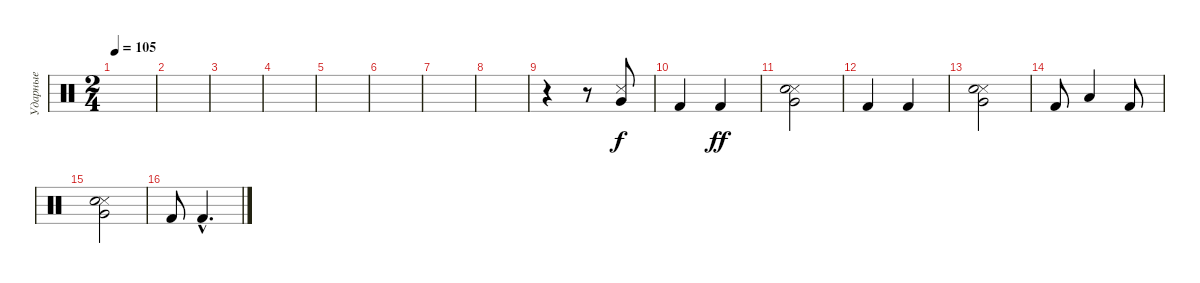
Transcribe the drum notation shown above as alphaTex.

\track ("Ударные" "Ударные") {instrument percussion}
\staff {score}
\articulation defaults
\ts (2 4)
\tempo 105
\clef neutral
\ks c
|
|
|
|
|
|
|
|
r.4 r.8 ("Metronome (hit)" "Very Low Tom (hit)").8 |
"Kick (hit) 2".4{dy f} "Kick (hit) 2".4{dy ff} |
("Metronome (hit)" "Very Low Tom (hit)" "Snare (hit) 2").2 |
"Kick (hit) 2".4 "Kick (hit) 2".4 |
("Metronome (hit)" "Very Low Tom (hit)" "Snare (hit) 2").2 |
"Kick (hit) 2".8 "Low Tom (hit)".4 "Kick (hit) 2".8 |
("Metronome (hit)" "Very Low Tom (hit)" "Snare (hit) 2").2 |
"Kick (hit) 2".8 "Kick (hit) 2"{hac}.4{d}
